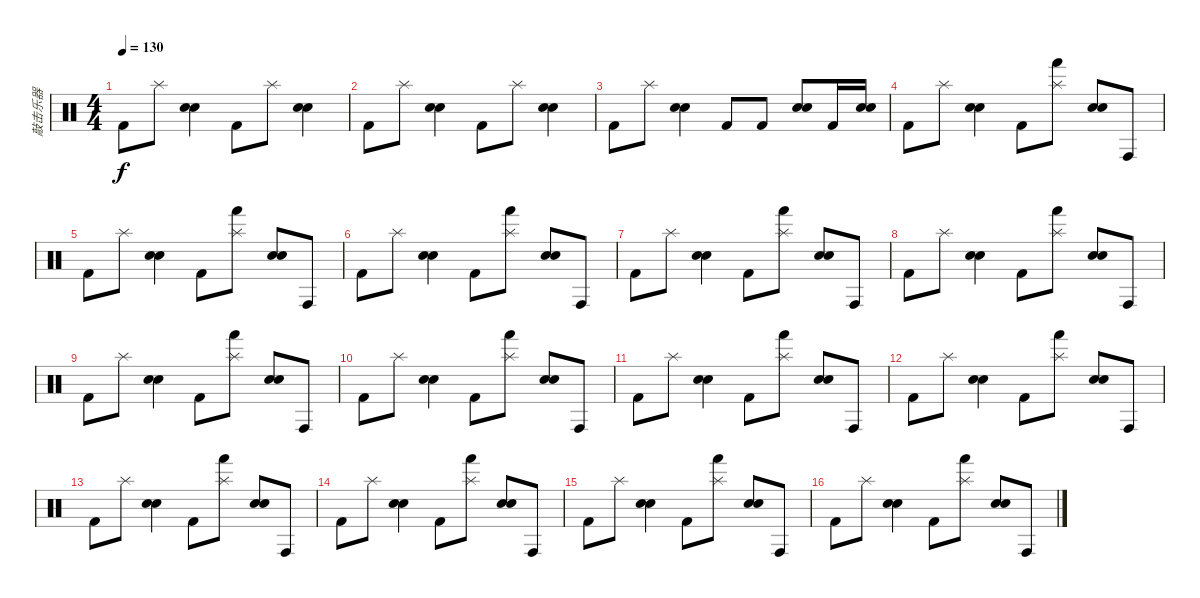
\track ("敲击乐器" "敲击乐器") {instrument percussion}
\staff {score}
\articulation defaults
\ts (4 4)
\tempo 130
\clef neutral
\ks c "Kick (hit) 2".8{dy f} "Splash (hit)".8
("Electric Snare (hit)" "Snare (hit) 2").4 "Kick (hit) 2".8 "Splash (hit)".8 ("Electric Snare (hit)" "Snare (hit) 2").4 |
"Kick (hit) 2".8 "Splash (hit)".8 ("Electric Snare (hit)" "Snare (hit) 2").4 "Kick (hit) 2".8 "Splash (hit)".8 ("Electric Snare (hit)" "Snare (hit) 2").4 |
"Kick (hit) 2".8 "Splash (hit)".8 ("Electric Snare (hit)" "Snare (hit) 2").4 "Kick (hit) 2".8 "Kick (hit) 2".8 ("Electric Snare (hit)" "Snare (hit) 2").8 "Kick (hit) 2".16 ("Electric Snare (hit)" "Snare (hit) 2").16 |
"Kick (hit) 2".8 "Splash (hit)".8 ("Electric Snare (hit)" "Snare (hit) 2").4 "Kick (hit) 2".8 ("Splash (hit)" "Hand (hit)").8 ("Electric Snare (hit)" "Snare (hit) 2").8 "Conga high (hit)".8 |
"Kick (hit) 2".8 "Splash (hit)".8 ("Electric Snare (hit)" "Snare (hit) 2").4 "Kick (hit) 2".8 ("Splash (hit)" "Hand (hit)").8 ("Electric Snare (hit)" "Snare (hit) 2").8 "Conga high (hit)".8 |
"Kick (hit) 2".8 "Splash (hit)".8 ("Electric Snare (hit)" "Snare (hit) 2").4 "Kick (hit) 2".8 ("Splash (hit)" "Hand (hit)").8 ("Electric Snare (hit)" "Snare (hit) 2").8 "Conga high (hit)".8 |
"Kick (hit) 2".8 "Splash (hit)".8 ("Electric Snare (hit)" "Snare (hit) 2").4 "Kick (hit) 2".8 ("Splash (hit)" "Hand (hit)").8 ("Electric Snare (hit)" "Snare (hit) 2").8 "Conga high (hit)".8 |
"Kick (hit) 2".8 "Splash (hit)".8 ("Electric Snare (hit)" "Snare (hit) 2").4 "Kick (hit) 2".8 ("Splash (hit)" "Hand (hit)").8 ("Electric Snare (hit)" "Snare (hit) 2").8 "Conga high (hit)".8 |
"Kick (hit) 2".8 "Splash (hit)".8 ("Electric Snare (hit)" "Snare (hit) 2").4 "Kick (hit) 2".8 ("Splash (hit)" "Hand (hit)").8 ("Electric Snare (hit)" "Snare (hit) 2").8 "Conga high (hit)".8 |
"Kick (hit) 2".8 "Splash (hit)".8 ("Electric Snare (hit)" "Snare (hit) 2").4 "Kick (hit) 2".8 ("Splash (hit)" "Hand (hit)").8 ("Electric Snare (hit)" "Snare (hit) 2").8 "Conga high (hit)".8 |
"Kick (hit) 2".8 "Splash (hit)".8 ("Electric Snare (hit)" "Snare (hit) 2").4 "Kick (hit) 2".8 ("Splash (hit)" "Hand (hit)").8 ("Electric Snare (hit)" "Snare (hit) 2").8 "Conga high (hit)".8 |
"Kick (hit) 2".8 "Splash (hit)".8 ("Electric Snare (hit)" "Snare (hit) 2").4 "Kick (hit) 2".8 ("Splash (hit)" "Hand (hit)").8 ("Electric Snare (hit)" "Snare (hit) 2").8 "Conga high (hit)".8 |
"Kick (hit) 2".8 "Splash (hit)".8 ("Electric Snare (hit)" "Snare (hit) 2").4 "Kick (hit) 2".8 ("Splash (hit)" "Hand (hit)").8 ("Electric Snare (hit)" "Snare (hit) 2").8 "Conga high (hit)".8 |
"Kick (hit) 2".8 "Splash (hit)".8 ("Electric Snare (hit)" "Snare (hit) 2").4 "Kick (hit) 2".8 ("Splash (hit)" "Hand (hit)").8 ("Electric Snare (hit)" "Snare (hit) 2").8 "Conga high (hit)".8 |
"Kick (hit) 2".8 "Splash (hit)".8 ("Electric Snare (hit)" "Snare (hit) 2").4 "Kick (hit) 2".8 ("Splash (hit)" "Hand (hit)").8 ("Electric Snare (hit)" "Snare (hit) 2").8 "Conga high (hit)".8 |
"Kick (hit) 2".8 "Splash (hit)".8 ("Electric Snare (hit)" "Snare (hit) 2").4 "Kick (hit) 2".8 ("Splash (hit)" "Hand (hit)").8 ("Electric Snare (hit)" "Snare (hit) 2").8 "Conga high (hit)".8
